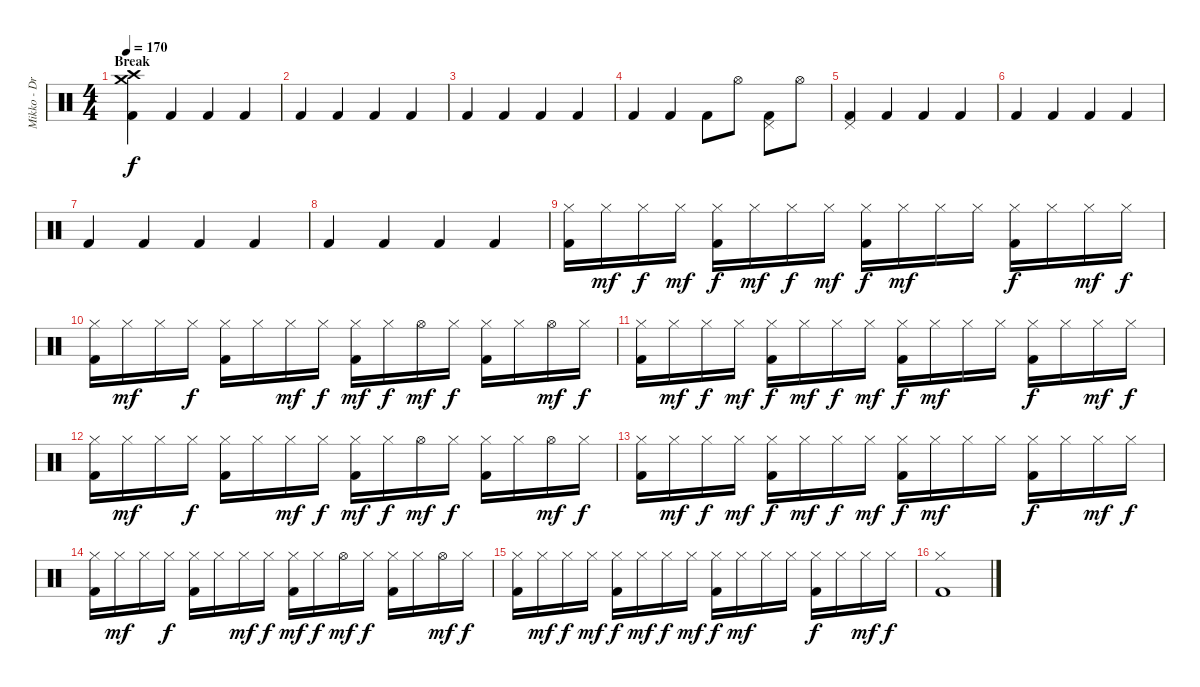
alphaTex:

\track ("Mikko - Drums" "Mikko - Dr") {instrument percussion}
\staff {score}
\articulation defaults
\ts (4 4)
\section ("" "Break")
\tempo 170
\clef neutral
\ks c
("Crash medium (hit)" "Crash high (hit)" "Kick (hit) 2").4{dy f} "Kick (hit) 2".4 "Kick (hit) 2".4 "Kick (hit) 2".4 |
"Kick (hit) 2".4 "Kick (hit) 2".4 "Kick (hit) 2".4 "Kick (hit) 2".4 |
"Kick (hit) 2".4 "Kick (hit) 2".4 "Kick (hit) 2".4 "Kick (hit) 2".4 |
"Kick (hit) 2".4 "Kick (hit) 2".4 "Kick (hit) 2".8 "Hi-Hat (open)".8 ("Pedal Hi-Hat (hit)" "Kick (hit) 2").8 "Hi-Hat (open)".8 |
("Pedal Hi-Hat (hit)" "Kick (hit) 2").4 "Kick (hit) 2".4 "Kick (hit) 2".4 "Kick (hit) 2".4 |
"Kick (hit) 2".4 "Kick (hit) 2".4 "Kick (hit) 2".4 "Kick (hit) 2".4 |
"Kick (hit) 2".4 "Kick (hit) 2".4 "Kick (hit) 2".4 "Kick (hit) 2".4 |
"Kick (hit) 2".4 "Kick (hit) 2".4 "Kick (hit) 2".4 "Kick (hit) 2".4 |
("Hi-Hat (closed)" "Kick (hit) 2").16 "Hi-Hat (closed)".16{dy mf} "Hi-Hat (closed)".16{dy f} "Hi-Hat (closed)".16{dy mf} ("Hi-Hat (closed)" "Kick (hit) 2").16{dy f} "Hi-Hat (closed)".16{dy mf} "Hi-Hat (closed)".16{dy f} "Hi-Hat (closed)".16{dy mf} ("Hi-Hat (closed)" "Kick (hit) 2").16{dy f} "Hi-Hat (closed)".16{dy mf} "Hi-Hat (closed)".16 "Hi-Hat (closed)".16 ("Hi-Hat (closed)" "Kick (hit) 2").16{dy f} "Hi-Hat (closed)".16 "Hi-Hat (closed)".16{dy mf} "Hi-Hat (closed)".16{dy f} |
("Hi-Hat (closed)" "Kick (hit) 2").16 "Hi-Hat (closed)".16{dy mf} "Hi-Hat (closed)".16 "Hi-Hat (closed)".16{dy f} ("Hi-Hat (closed)" "Kick (hit) 2").16 "Hi-Hat (closed)".16 "Hi-Hat (closed)".16{dy mf} "Hi-Hat (closed)".16{dy f} ("Hi-Hat (closed)" "Kick (hit) 2").16{dy mf} "Hi-Hat (closed)".16{dy f} "Hi-Hat (open)".16{dy mf} "Hi-Hat (closed)".16{dy f} ("Hi-Hat (closed)" "Kick (hit) 2").16 "Hi-Hat (closed)".16 "Hi-Hat (open)".16{dy mf} "Hi-Hat (closed)".16{dy f} |
("Hi-Hat (closed)" "Kick (hit) 2").16 "Hi-Hat (closed)".16{dy mf} "Hi-Hat (closed)".16{dy f} "Hi-Hat (closed)".16{dy mf} ("Hi-Hat (closed)" "Kick (hit) 2").16{dy f} "Hi-Hat (closed)".16{dy mf} "Hi-Hat (closed)".16{dy f} "Hi-Hat (closed)".16{dy mf} ("Hi-Hat (closed)" "Kick (hit) 2").16{dy f} "Hi-Hat (closed)".16{dy mf} "Hi-Hat (closed)".16 "Hi-Hat (closed)".16 ("Hi-Hat (closed)" "Kick (hit) 2").16{dy f} "Hi-Hat (closed)".16 "Hi-Hat (closed)".16{dy mf} "Hi-Hat (closed)".16{dy f} |
("Hi-Hat (closed)" "Kick (hit) 2").16 "Hi-Hat (closed)".16{dy mf} "Hi-Hat (closed)".16 "Hi-Hat (closed)".16{dy f} ("Hi-Hat (closed)" "Kick (hit) 2").16 "Hi-Hat (closed)".16 "Hi-Hat (closed)".16{dy mf} "Hi-Hat (closed)".16{dy f} ("Hi-Hat (closed)" "Kick (hit) 2").16{dy mf} "Hi-Hat (closed)".16{dy f} "Hi-Hat (open)".16{dy mf} "Hi-Hat (closed)".16{dy f} ("Hi-Hat (closed)" "Kick (hit) 2").16 "Hi-Hat (closed)".16 "Hi-Hat (open)".16{dy mf} "Hi-Hat (closed)".16{dy f} |
("Hi-Hat (closed)" "Kick (hit) 2").16 "Hi-Hat (closed)".16{dy mf} "Hi-Hat (closed)".16{dy f} "Hi-Hat (closed)".16{dy mf} ("Hi-Hat (closed)" "Kick (hit) 2").16{dy f} "Hi-Hat (closed)".16{dy mf} "Hi-Hat (closed)".16{dy f} "Hi-Hat (closed)".16{dy mf} ("Hi-Hat (closed)" "Kick (hit) 2").16{dy f} "Hi-Hat (closed)".16{dy mf} "Hi-Hat (closed)".16 "Hi-Hat (closed)".16 ("Hi-Hat (closed)" "Kick (hit) 2").16{dy f} "Hi-Hat (closed)".16 "Hi-Hat (closed)".16{dy mf} "Hi-Hat (closed)".16{dy f} |
("Hi-Hat (closed)" "Kick (hit) 2").16 "Hi-Hat (closed)".16{dy mf} "Hi-Hat (closed)".16 "Hi-Hat (closed)".16{dy f} ("Hi-Hat (closed)" "Kick (hit) 2").16 "Hi-Hat (closed)".16 "Hi-Hat (closed)".16{dy mf} "Hi-Hat (closed)".16{dy f} ("Hi-Hat (closed)" "Kick (hit) 2").16{dy mf} "Hi-Hat (closed)".16{dy f} "Hi-Hat (open)".16{dy mf} "Hi-Hat (closed)".16{dy f} ("Hi-Hat (closed)" "Kick (hit) 2").16 "Hi-Hat (closed)".16 "Hi-Hat (open)".16{dy mf} "Hi-Hat (closed)".16{dy f} |
("Hi-Hat (closed)" "Kick (hit) 2").16 "Hi-Hat (closed)".16{dy mf} "Hi-Hat (closed)".16{dy f} "Hi-Hat (closed)".16{dy mf} ("Hi-Hat (closed)" "Kick (hit) 2").16{dy f} "Hi-Hat (closed)".16{dy mf} "Hi-Hat (closed)".16{dy f} "Hi-Hat (closed)".16{dy mf} ("Hi-Hat (closed)" "Kick (hit) 2").16{dy f} "Hi-Hat (closed)".16{dy mf} "Hi-Hat (closed)".16 "Hi-Hat (closed)".16 ("Hi-Hat (closed)" "Kick (hit) 2").16{dy f} "Hi-Hat (closed)".16 "Hi-Hat (closed)".16{dy mf} "Hi-Hat (closed)".16{dy f} |
("Hi-Hat (closed)" "Kick (hit) 2").1
